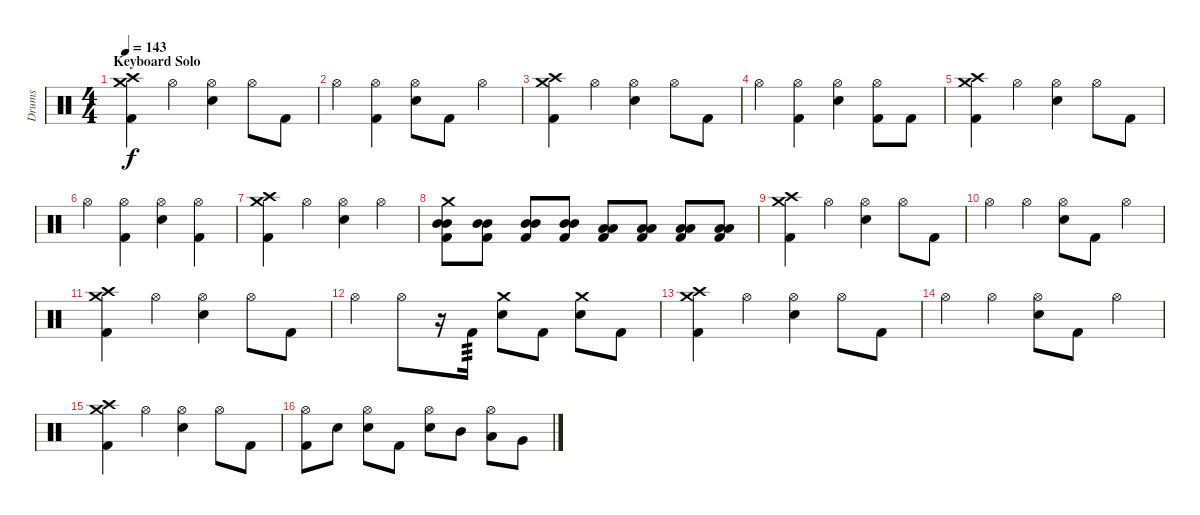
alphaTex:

\track ("Drums" "Drums") {instrument percussion}
\staff {score}
\articulation defaults
\ts (4 4)
\section ("" "Keyboard Solo")
\tempo 143
\clef neutral
\ks c
("Crash medium (hit)" "Crash high (hit)" "Kick (hit) 2").4{dy f} "Hi-Hat (open)".4 ("Hi-Hat (open)" "Electric Snare (hit)").4 "Hi-Hat (open)".8 "Kick (hit) 2".8 |
"Hi-Hat (open)".4 ("Hi-Hat (open)" "Kick (hit) 2").4 ("Hi-Hat (open)" "Electric Snare (hit)").8 "Kick (hit) 2".8 "Hi-Hat (open)".4 |
("Crash medium (hit)" "Crash high (hit)" "Kick (hit) 2").4 "Hi-Hat (open)".4 ("Hi-Hat (open)" "Electric Snare (hit)").4 "Hi-Hat (open)".8 "Kick (hit) 2".8 |
"Hi-Hat (open)".4 ("Hi-Hat (open)" "Kick (hit) 2").4 ("Hi-Hat (open)" "Electric Snare (hit)").4 ("Hi-Hat (open)" "Kick (hit) 2").8 "Kick (hit) 2".8 |
("Crash medium (hit)" "Crash high (hit)" "Kick (hit) 2").4 "Hi-Hat (open)".4 ("Hi-Hat (open)" "Electric Snare (hit)").4 "Hi-Hat (open)".8 "Kick (hit) 2".8 |
"Hi-Hat (open)".4 ("Hi-Hat (open)" "Kick (hit) 2").4 ("Hi-Hat (open)" "Electric Snare (hit)").4 ("Hi-Hat (open)" "Kick (hit) 2").4 |
("Crash medium (hit)" "Crash high (hit)" "Kick (hit) 2").4 "Hi-Hat (open)".4 ("Hi-Hat (open)" "Electric Snare (hit)").4 "Hi-Hat (open)".4 |
("Crash medium (hit)" "Mid Tom (hit)" "Mid Tom (hit)" "Kick (hit) 2").8 ("Mid Tom (hit)" "Mid Tom (hit)" "Kick (hit) 2").8 ("Mid Tom (hit)" "Mid Tom (hit)" "Kick (hit) 2").8 ("Mid Tom (hit)" "Mid Tom (hit)" "Kick (hit) 2").8 ("Low Tom (hit)" "Low Tom (hit)" "Kick (hit) 2").8 ("Low Tom (hit)" "Low Tom (hit)" "Kick (hit) 2").8 ("Low Tom (hit)" "Low Tom (hit)" "Kick (hit) 2").8 ("Low Tom (hit)" "Low Tom (hit)" "Kick (hit) 2").8 |
("Crash medium (hit)" "Crash high (hit)" "Kick (hit) 2").4 "Hi-Hat (open)".4 ("Hi-Hat (open)" "Electric Snare (hit)").4 "Hi-Hat (open)".8 "Kick (hit) 2".8 |
"Hi-Hat (open)".4 "Hi-Hat (open)".4 ("Hi-Hat (open)" "Electric Snare (hit)").8 "Kick (hit) 2".8 "Hi-Hat (open)".4 |
("Crash medium (hit)" "Crash high (hit)" "Kick (hit) 2").4 "Hi-Hat (open)".4 ("Hi-Hat (open)" "Electric Snare (hit)").4 "Hi-Hat (open)".8 "Kick (hit) 2".8 |
"Hi-Hat (open)".4 "Hi-Hat (open)".8 r.16 "Kick (hit) 2".16{tp 3} ("Crash medium (hit)" "Electric Snare (hit)").8 "Kick (hit) 2".8 ("Crash medium (hit)" "Electric Snare (hit)").8 "Kick (hit) 2".8 |
("Crash medium (hit)" "Crash high (hit)" "Kick (hit) 2").4 "Hi-Hat (open)".4 ("Hi-Hat (open)" "Electric Snare (hit)").4 "Hi-Hat (open)".8 "Kick (hit) 2".8 |
"Hi-Hat (open)".4 "Hi-Hat (open)".4 ("Hi-Hat (open)" "Electric Snare (hit)").8 "Kick (hit) 2".8 "Hi-Hat (open)".4 |
("Crash medium (hit)" "Crash high (hit)" "Kick (hit) 2").4 "Hi-Hat (open)".4 ("Hi-Hat (open)" "Electric Snare (hit)").4 "Hi-Hat (open)".8 "Kick (hit) 2".8 |
("Hi-Hat (open)" "Kick (hit) 2").8 "Electric Snare (hit)".8 ("Hi-Hat (open)" "Electric Snare (hit)").8 "Kick (hit) 2".8 ("Hi-Hat (open)" "Electric Snare (hit)").8 "Mid Tom (hit)".8 ("Hi-Hat (open)" "Low Tom (hit)").8 "Very Low Tom (hit)".8
